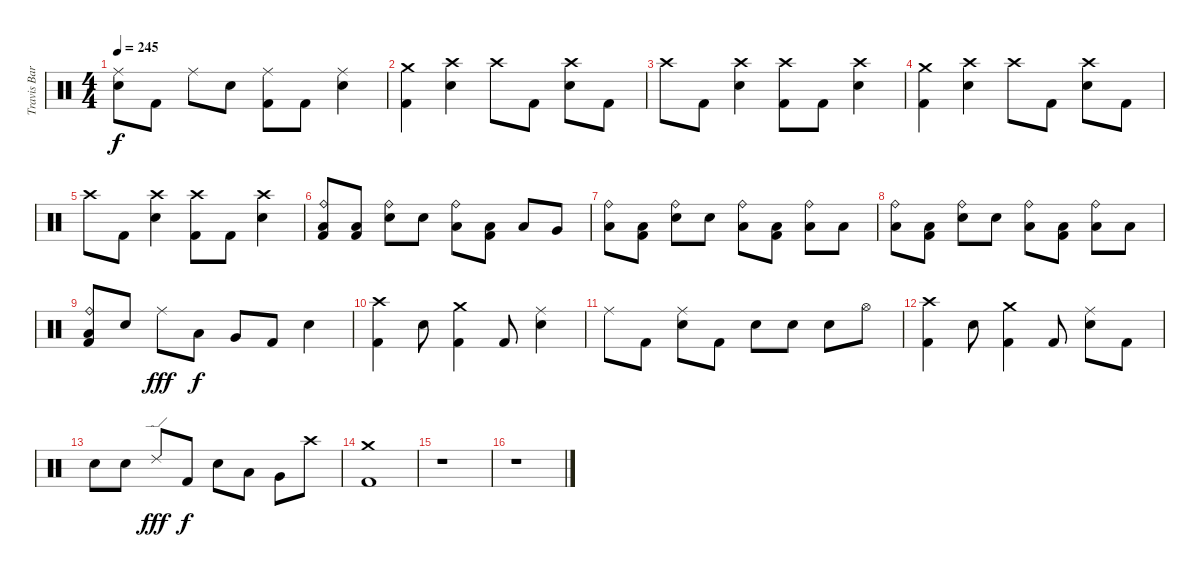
\track ("Travis Barker - Batería" "Travis Bar") {instrument percussion}
\staff {score}
\articulation defaults
\ts (4 4)
\tempo 245
\clef neutral
\ks c
("Ride (middle)" "Electric Snare (hit)").8{dy f} "Kick (hit) 2".8 "Ride (middle)".8 "Electric Snare (hit)".8 ("Ride (middle)" "Kick (hit) 2").8 "Kick (hit) 2".8 ("Ride (middle)" "Electric Snare (hit)").4 |
("Crash medium (hit)" "Kick (hit) 2").4 ("Crash high (hit)" "Electric Snare (hit)").4 "Crash high (hit)".8 "Kick (hit) 2".8 ("Crash high (hit)" "Electric Snare (hit)").8 "Kick (hit) 2".8 |
"Crash high (hit)".8 "Kick (hit) 2".8 ("Crash high (hit)" "Electric Snare (hit)").4 ("Crash high (hit)" "Kick (hit) 2").8 "Kick (hit) 2".8 ("Crash high (hit)" "Electric Snare (hit)").4 |
("Crash medium (hit)" "Kick (hit) 2").4 ("Crash high (hit)" "Electric Snare (hit)").4 "Crash high (hit)".8 "Kick (hit) 2".8 ("Crash high (hit)" "Electric Snare (hit)").8 "Kick (hit) 2".8 |
"Crash high (hit)".8 "Kick (hit) 2".8 ("Crash high (hit)" "Electric Snare (hit)").4 ("Crash high (hit)" "Kick (hit) 2").8 "Kick (hit) 2".8 ("Crash high (hit)" "Electric Snare (hit)").4 |
("Ride (bell)" "Low Floor Tom (hit)" "Kick (hit) 2").8 ("Low Floor Tom (hit)" "Kick (hit) 2").8 ("Ride (bell)" "Electric Snare (hit)").8 "Electric Snare (hit)".8 ("Ride (bell)" "Low Floor Tom (hit)").8 ("Low Floor Tom (hit)" "Kick (hit) 2").8 "Low Tom (hit)".8 "Very Low Tom (hit)".8 |
("Ride (bell)" "Low Floor Tom (hit)").8 ("Low Floor Tom (hit)" "Kick (hit) 2").8 ("Ride (bell)" "Electric Snare (hit)").8 "Electric Snare (hit)".8 ("Ride (bell)" "Low Floor Tom (hit)").8 ("Low Floor Tom (hit)" "Kick (hit) 2").8 ("Ride (bell)" "Low Tom (hit)").8 "Low Tom (hit)".8 |
("Ride (bell)" "Low Floor Tom (hit)").8 ("Low Floor Tom (hit)" "Kick (hit) 2").8 ("Ride (bell)" "Electric Snare (hit)").8 "Electric Snare (hit)".8 ("Ride (bell)" "Low Floor Tom (hit)").8 ("Low Floor Tom (hit)" "Kick (hit) 2").8 ("Ride (bell)" "Low Tom (hit)").8 "Low Tom (hit)".8 |
("Ride (bell)" "Low Floor Tom (hit)" "Kick (hit) 2").8 "Electric Snare (hit)".8 "Ride (middle)".8{dy fff} "Low Tom (hit)".8{dy f} "Very Low Tom (hit)".8 "Kick (hit) 2".8 "Electric Snare (hit)".4 |
("Crash high (hit)" "Kick (hit) 2").4 "Electric Snare (hit)".8 ("Crash medium (hit)" "Kick (hit) 2").4 "Kick (hit) 2".8 ("Ride (middle)" "Electric Snare (hit)").4 |
"Ride (middle)".8 "Kick (hit) 2".8 ("Ride (middle)" "Electric Snare (hit)").8 "Kick (hit) 2".8 "Electric Snare (hit)".8 "Electric Snare (hit)".8 "Electric Snare (hit)".8 "Hi-Hat (open)".8 |
("Crash high (hit)" "Kick (hit) 2").4 "Electric Snare (hit)".8 ("Crash medium (hit)" "Kick (hit) 2").4 "Kick (hit) 2".8 ("Ride (middle)" "Electric Snare (hit)").8 "Kick (hit) 2".8 |
"Electric Snare (hit)".8 "Electric Snare (hit)".8 "Ride (edge) 2".8{dy fff} "Kick (hit) 2".8{dy f} "Electric Snare (hit)".8 "Low Tom (hit)".8 "Very Low Tom (hit)".8 "Crash high (hit)".8 |
("Crash medium (hit)" "Kick (hit) 2").1 |
r.1 |
r.1
